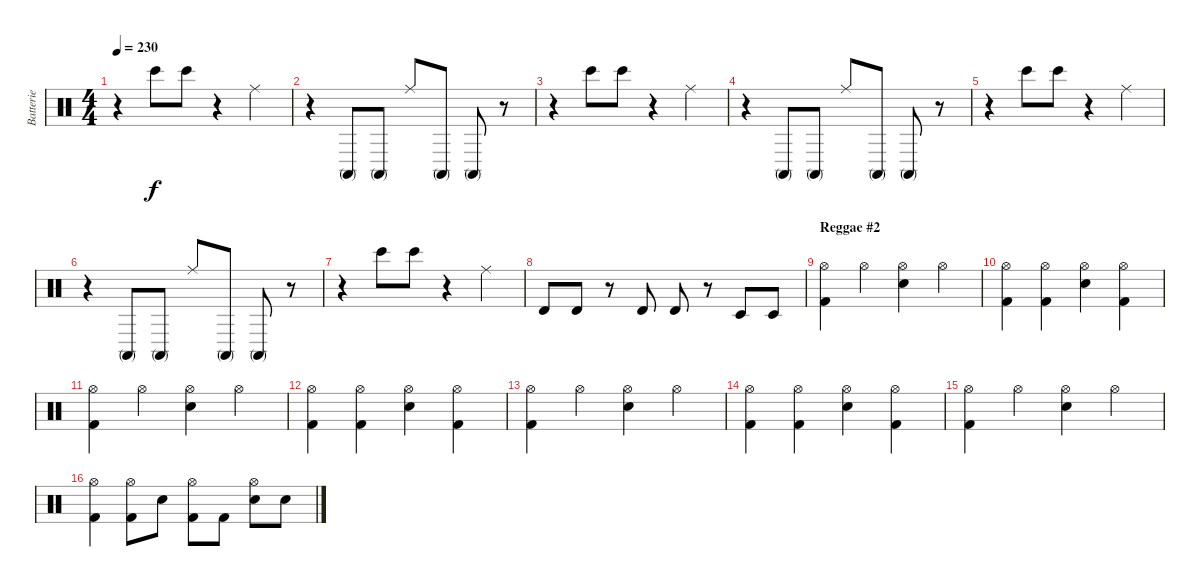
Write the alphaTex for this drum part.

\track ("Batterie" "Batterie") {instrument percussion}
\staff {score}
\articulation defaults
\ts (4 4)
\tempo 230
\clef neutral
\ks c
r.4{dy f} "Bongo High (hit)".8 "Bongo High (hit)".8 r.4 "Ride (middle)".4 |
r.4 "Conga high (mute)".8 "Conga high (mute)".8 "Ride (middle)".8 "Conga high (mute)".8 "Conga high (mute)".8 r.8 |
r.4 "Bongo High (hit)".8 "Bongo High (hit)".8 r.4 "Ride (middle)".4 |
r.4 "Conga high (mute)".8 "Conga high (mute)".8 "Ride (middle)".8 "Conga high (mute)".8 "Conga high (mute)".8 r.8 |
r.4 "Bongo High (hit)".8 "Bongo High (hit)".8 r.4 "Ride (middle)".4 |
r.4 "Conga high (mute)".8 "Conga high (mute)".8 "Ride (middle)".8 "Conga high (mute)".8 "Conga high (mute)".8 r.8 |
r.4 "Bongo High (hit)".8 "Bongo High (hit)".8 r.4 "Ride (middle)".4 |
"Timbale high (hit)".8 "Timbale high (hit)".8 r.8 "Timbale high (hit)".8 "Timbale high (hit)".8 r.8 "Timbale low (hit)".8 "Timbale low (hit)".8 |
\section ("" "Reggae #2")
("Hi-Hat (open)" "Kick (hit) 2").4 "Hi-Hat (open)".4 ("Hi-Hat (open)" "Snare (hit) 2").4 "Hi-Hat (open)".4 |
("Hi-Hat (open)" "Kick (hit) 2").4 ("Hi-Hat (open)" "Kick (hit) 2").4 ("Hi-Hat (open)" "Snare (hit) 2").4 ("Hi-Hat (open)" "Kick (hit) 2").4 |
("Hi-Hat (open)" "Kick (hit) 2").4 "Hi-Hat (open)".4 ("Hi-Hat (open)" "Snare (hit) 2").4 "Hi-Hat (open)".4 |
("Hi-Hat (open)" "Kick (hit) 2").4 ("Hi-Hat (open)" "Kick (hit) 2").4 ("Hi-Hat (open)" "Snare (hit) 2").4 ("Hi-Hat (open)" "Kick (hit) 2").4 |
("Hi-Hat (open)" "Kick (hit) 2").4 "Hi-Hat (open)".4 ("Hi-Hat (open)" "Snare (hit) 2").4 "Hi-Hat (open)".4 |
("Hi-Hat (open)" "Kick (hit) 2").4 ("Hi-Hat (open)" "Kick (hit) 2").4 ("Hi-Hat (open)" "Snare (hit) 2").4 ("Hi-Hat (open)" "Kick (hit) 2").4 |
("Hi-Hat (open)" "Kick (hit) 2").4 "Hi-Hat (open)".4 ("Hi-Hat (open)" "Snare (hit) 2").4 "Hi-Hat (open)".4 |
("Hi-Hat (open)" "Kick (hit) 2").4 ("Hi-Hat (open)" "Kick (hit) 2").8 "Snare (hit) 2".8 ("Hi-Hat (open)" "Kick (hit) 2").8 "Kick (hit) 2".8 ("Hi-Hat (open)" "Snare (hit) 2").8 "Snare (hit) 2".8
